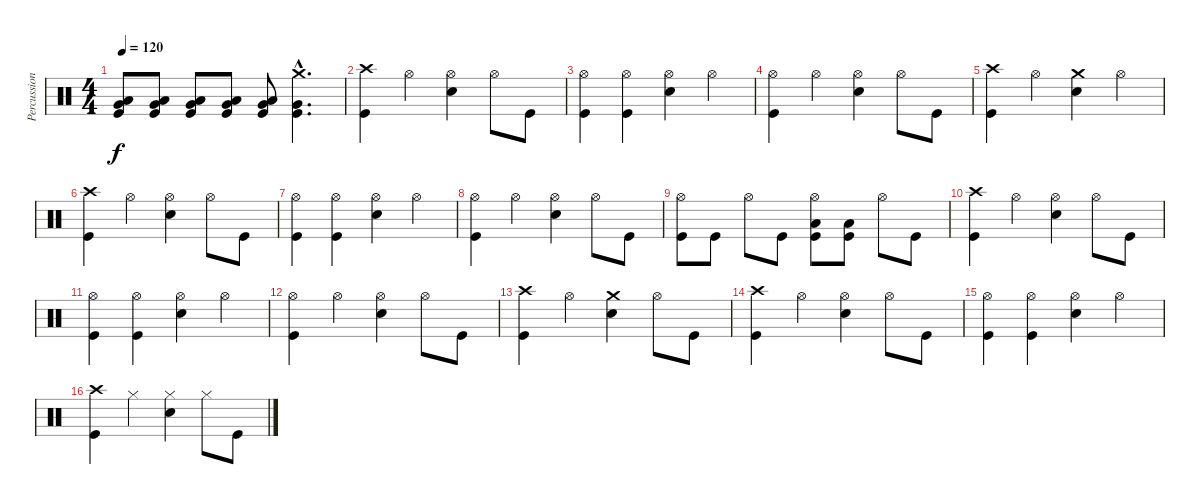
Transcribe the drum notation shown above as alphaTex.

\track ("Percussion" "Percussion") {instrument percussion}
\staff {score}
\articulation defaults
\ts (4 4)
\tempo 120
\clef neutral
\ks c
("Very Low Tom (hit)" "Low Tom (hit)" "Kick (hit)").8{dy f} ("Very Low Tom (hit)" "Low Tom (hit)" "Kick (hit)").8 ("Very Low Tom (hit)" "Low Tom (hit)" "Kick (hit)").8 ("Very Low Tom (hit)" "Low Tom (hit)" "Kick (hit)").8 ("Very Low Tom (hit)" "Low Tom (hit)" "Kick (hit)").8 ("Crash medium (hit)"{hac} "Very Low Tom (hit)"{hac} "Kick (hit)"{hac}).4{d} |
("Crash high (hit)" "Kick (hit)").4 "Hi-Hat (open)".4 ("Hi-Hat (open)" "Snare (hit) 2").4 "Hi-Hat (open)".8 "Kick (hit)".8 |
("Hi-Hat (open)" "Kick (hit)").4 ("Hi-Hat (open)" "Kick (hit)").4 ("Hi-Hat (open)" "Snare (hit) 2").4 "Hi-Hat (open)".4 |
("Hi-Hat (open)" "Kick (hit)").4 "Hi-Hat (open)".4 ("Hi-Hat (open)" "Snare (hit) 2").4 "Hi-Hat (open)".8 "Kick (hit)".8 |
("Crash high (hit)" "Kick (hit)").4 "Hi-Hat (open)".4 ("Crash medium (hit)" "Snare (hit) 2").4 "Hi-Hat (open)".4 |
("Crash high (hit)" "Kick (hit)").4 "Hi-Hat (open)".4 ("Hi-Hat (open)" "Snare (hit) 2").4 "Hi-Hat (open)".8 "Kick (hit)".8 |
("Hi-Hat (open)" "Kick (hit)").4 ("Hi-Hat (open)" "Kick (hit)").4 ("Hi-Hat (open)" "Snare (hit) 2").4 "Hi-Hat (open)".4 |
("Hi-Hat (open)" "Kick (hit)").4 "Hi-Hat (open)".4 ("Hi-Hat (open)" "Snare (hit) 2").4 "Hi-Hat (open)".8 "Kick (hit)".8 |
("Hi-Hat (open)" "Kick (hit)").8 "Kick (hit)".8 "Hi-Hat (open)".8 "Kick (hit)".8 ("Hi-Hat (open)" "Kick (hit)" "Low Tom (hit)").8 ("Kick (hit)" "Low Tom (hit)").8 "Hi-Hat (open)".8 "Kick (hit)".8 |
("Crash high (hit)" "Kick (hit)").4 "Hi-Hat (open)".4 ("Hi-Hat (open)" "Snare (hit) 2").4 "Hi-Hat (open)".8 "Kick (hit)".8 |
("Hi-Hat (open)" "Kick (hit)").4 ("Hi-Hat (open)" "Kick (hit)").4 ("Hi-Hat (open)" "Snare (hit) 2").4 "Hi-Hat (open)".4 |
("Hi-Hat (open)" "Kick (hit)").4 "Hi-Hat (open)".4 ("Hi-Hat (open)" "Snare (hit) 2").4 "Hi-Hat (open)".8 "Kick (hit)".8 |
("Crash high (hit)" "Kick (hit)").4 "Hi-Hat (open)".4 ("Crash medium (hit)" "Snare (hit) 2").4 "Hi-Hat (open)".8 "Kick (hit)".8 |
("Crash high (hit)" "Kick (hit)").4 "Hi-Hat (open)".4 ("Hi-Hat (open)" "Snare (hit) 2").4 "Hi-Hat (open)".8 "Kick (hit)".8 |
("Hi-Hat (open)" "Kick (hit)").4 ("Hi-Hat (open)" "Kick (hit)").4 ("Hi-Hat (open)" "Snare (hit) 2").4 "Hi-Hat (open)".4 |
("Crash high (hit)" "Kick (hit)").4 "Hi-Hat (closed)".4 ("Hi-Hat (closed)" "Snare (hit) 2").4 "Hi-Hat (closed)".8 "Kick (hit)".8
